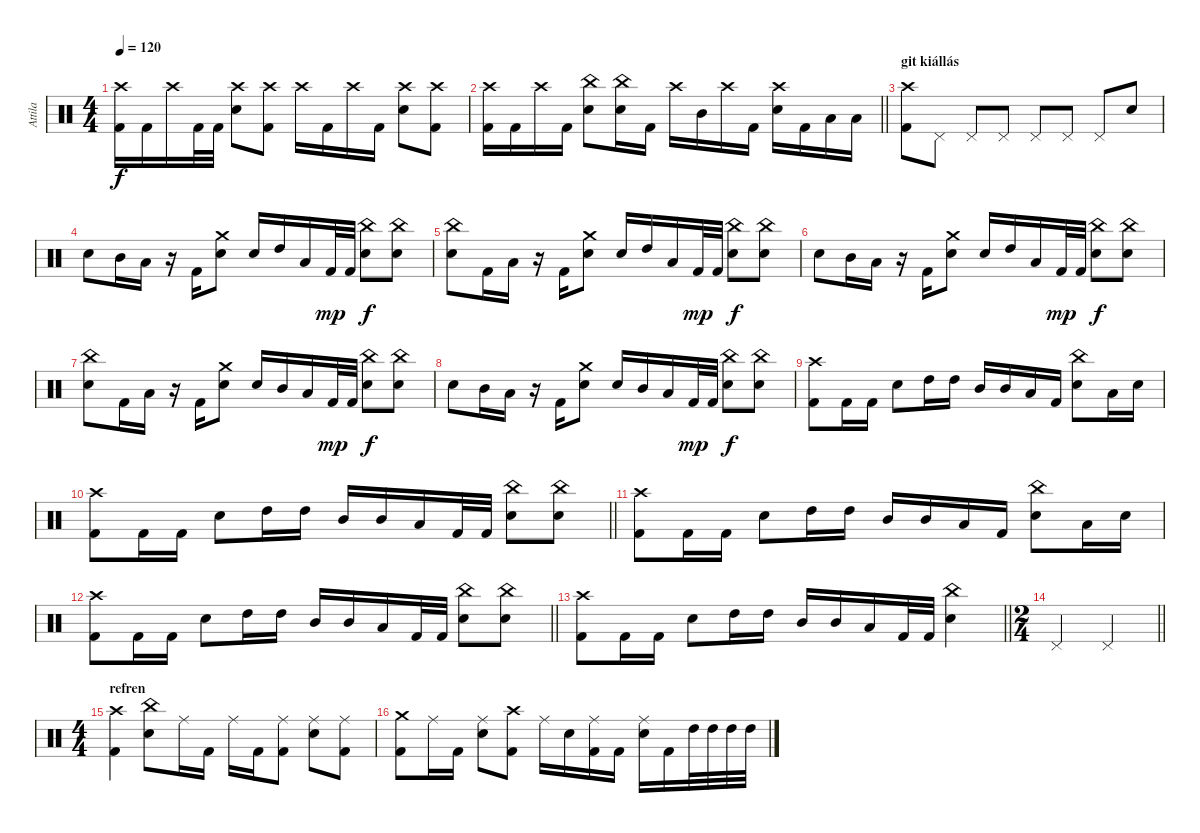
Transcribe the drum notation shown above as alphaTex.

\track ("Attila" "Attila") {instrument percussion}
\staff {score}
\articulation defaults
\ts (4 4)
\tempo 120
\clef neutral
\ks c
("Crash high (hit)" "Kick (hit) 2").16{dy f} "Kick (hit) 2".16 "Crash high (hit)".16 "Kick (hit) 2".32 "Kick (hit) 2".32 ("Crash high (hit)" "Electric Snare (hit)").8 ("Crash high (hit)" "Kick (hit) 2").8 "Crash high (hit)".16 "Kick (hit) 2".16 "Crash high (hit)".16 "Kick (hit) 2".16 ("Crash high (hit)" "Electric Snare (hit)").8 ("Crash high (hit)" "Kick (hit) 2").8 |
\barLineRight lightlight
("Crash high (hit)" "Kick (hit) 2").16 "Kick (hit) 2".16 "Crash high (hit)".16 "Kick (hit) 2".16 ("China (hit)" "Electric Snare (hit)").8 ("China (hit)" "Electric Snare (hit)").16 "Kick (hit) 2".16 "Crash high (hit)".16 "Mid Tom (hit)".16 "Crash high (hit)".16 "Kick (hit) 2".16 ("Crash high (hit)" "Electric Snare (hit)").16 "Kick (hit) 2".16 "Low Tom (hit)".16 "Low Tom (hit)".16 |
\section ("" "git kiállás")
("Crash high (hit)" "Kick (hit) 2").8 "Pedal Hi-Hat (hit)".8 "Pedal Hi-Hat (hit)".8 "Pedal Hi-Hat (hit)".8 "Pedal Hi-Hat (hit)".8 "Pedal Hi-Hat (hit)".8 "Pedal Hi-Hat (hit)".8 "Electric Snare (hit)".8 |
"Electric Snare (hit)".8 "Mid Tom (hit)".16 "Low Tom (hit)".16 r.16 "Kick (hit) 2".16 ("Crash medium (hit)" "Electric Snare (hit)").8 "Electric Snare (hit)".16 "High Tom (hit)".16 "Low Tom (hit)".16 "Kick (hit) 2".32{dy mp} "Kick (hit) 2".32 ("China (hit)" "Electric Snare (hit)").8{dy f} ("China (hit)" "Electric Snare (hit)").8 |
("China (hit)" "Electric Snare (hit)").8 "Kick (hit) 2".16 "Low Tom (hit)".16 r.16 "Kick (hit) 2".16 ("Crash medium (hit)" "Electric Snare (hit)").8 "Electric Snare (hit)".16 "High Tom (hit)".16 "Low Tom (hit)".16 "Kick (hit) 2".32{dy mp} "Kick (hit) 2".32 ("China (hit)" "Electric Snare (hit)").8{dy f} ("China (hit)" "Electric Snare (hit)").8 |
"Electric Snare (hit)".8 "Mid Tom (hit)".16 "Low Tom (hit)".16 r.16 "Kick (hit) 2".16 ("Crash medium (hit)" "Electric Snare (hit)").8 "Electric Snare (hit)".16 "High Tom (hit)".16 "Low Tom (hit)".16 "Kick (hit) 2".32{dy mp} "Kick (hit) 2".32 ("China (hit)" "Electric Snare (hit)").8{dy f} ("China (hit)" "Electric Snare (hit)").8 |
("China (hit)" "Electric Snare (hit)").8 "Kick (hit) 2".16 "Low Tom (hit)".16 r.16 "Kick (hit) 2".16 ("Crash medium (hit)" "Electric Snare (hit)").8 "Electric Snare (hit)".16 "Mid Tom (hit)".16 "Low Tom (hit)".16 "Kick (hit) 2".32{dy mp} "Kick (hit) 2".32 ("China (hit)" "Electric Snare (hit)").8{dy f} ("China (hit)" "Electric Snare (hit)").8 |
"Electric Snare (hit)".8 "Mid Tom (hit)".16 "Low Tom (hit)".16 r.16 "Kick (hit) 2".16 ("Crash medium (hit)" "Electric Snare (hit)").8 "Electric Snare (hit)".16 "Mid Tom (hit)".16 "Low Tom (hit)".16 "Kick (hit) 2".32{dy mp} "Kick (hit) 2".32 ("China (hit)" "Electric Snare (hit)").8{dy f} ("China (hit)" "Electric Snare (hit)").8 |
("Crash high (hit)" "Kick (hit) 2").8 "Kick (hit) 2".16 "Kick (hit) 2".16 "Electric Snare (hit)".8 "High Tom (hit)".16 "High Tom (hit)".16 "Mid Tom (hit)".16 "Mid Tom (hit)".16 "Low Tom (hit)".16 "Kick (hit) 2".16 ("China (hit)" "Electric Snare (hit)").8 "Low Tom (hit)".16 "Electric Snare (hit)".16 |
\barLineRight lightlight
("Crash high (hit)" "Kick (hit) 2").8 "Kick (hit) 2".16 "Kick (hit) 2".16 "Electric Snare (hit)".8 "High Tom (hit)".16 "High Tom (hit)".16 "Mid Tom (hit)".16 "Mid Tom (hit)".16 "Low Tom (hit)".16 "Kick (hit) 2".32 "Kick (hit) 2".32 ("China (hit)" "Electric Snare (hit)").8 ("China (hit)" "Electric Snare (hit)").8 |
("Crash high (hit)" "Kick (hit) 2").8 "Kick (hit) 2".16 "Kick (hit) 2".16 "Electric Snare (hit)".8 "High Tom (hit)".16 "High Tom (hit)".16 "Mid Tom (hit)".16 "Mid Tom (hit)".16 "Low Tom (hit)".16 "Kick (hit) 2".16 ("China (hit)" "Electric Snare (hit)").8 "Low Tom (hit)".16 "Electric Snare (hit)".16 |
\barLineRight lightlight
("Crash high (hit)" "Kick (hit) 2").8 "Kick (hit) 2".16 "Kick (hit) 2".16 "Electric Snare (hit)".8 "High Tom (hit)".16 "High Tom (hit)".16 "Mid Tom (hit)".16 "Mid Tom (hit)".16 "Low Tom (hit)".16 "Kick (hit) 2".32 "Kick (hit) 2".32 ("China (hit)" "Electric Snare (hit)").8 ("China (hit)" "Electric Snare (hit)").8 |
\barLineRight lightlight
("Crash high (hit)" "Kick (hit) 2").8 "Kick (hit) 2".16 "Kick (hit) 2".16 "Electric Snare (hit)".8 "High Tom (hit)".16 "High Tom (hit)".16 "Mid Tom (hit)".16 "Mid Tom (hit)".16 "Low Tom (hit)".16 "Kick (hit) 2".32 "Kick (hit) 2".32 ("China (hit)" "Electric Snare (hit)").4 |
\ts (2 4)
\barLineRight lightlight "Pedal Hi-Hat (hit)".4 "Pedal Hi-Hat (hit)".4
|
\ts (4 4)
\section ("" "refren")
("Crash high (hit)" "Kick (hit) 2").4 ("China (hit)" "Electric Snare (hit)").8 "Ride (middle)".16 "Kick (hit) 2".16 "Ride (middle)".16 "Kick (hit) 2".16 ("Ride (middle)" "Kick (hit) 2").8 ("Ride (middle)" "Electric Snare (hit)").8 ("Ride (middle)" "Kick (hit) 2").8 |
("Crash medium (hit)" "Kick (hit) 2").8 "Ride (middle)".16 "Kick (hit) 2".16 ("Ride (middle)" "Electric Snare (hit)").8 ("Crash high (hit)" "Kick (hit) 2").8 "Ride (middle)".16 "Electric Snare (hit)".16 ("Ride (middle)" "Kick (hit) 2").16 "Kick (hit) 2".16 ("Ride (middle)" "Electric Snare (hit)").16 "Kick (hit) 2".16 "High Tom (hit)".32 "High Tom (hit)".32 "High Tom (hit)".32 "High Tom (hit)".32
